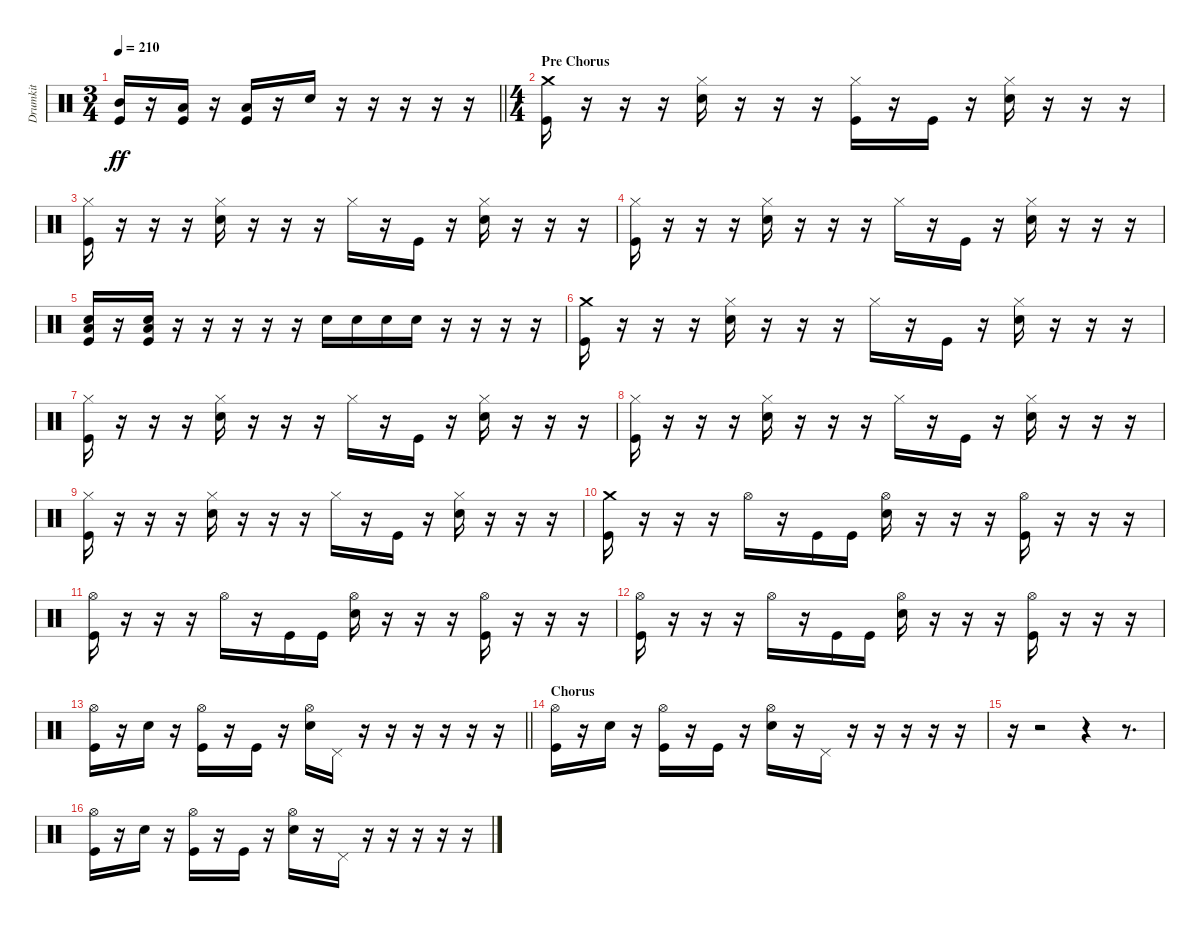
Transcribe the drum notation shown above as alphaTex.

\track ("Drumkit" "Drumkit") {instrument percussion}
\staff {score}
\articulation defaults
\ts (3 4)
\tempo 210
\clef neutral
\barLineRight lightlight
\ks c
("Mid Tom (hit)" "Kick (hit)").16{dy ff} r.16 ("Low Tom (hit)" "Kick (hit)").16 r.16 ("Low Floor Tom (hit)" "Kick (hit)").16 r.16 "Snare (hit) 2".16 r.16 r.16 r.16 r.16 r.16 |
\ts (4 4)
\section ("" "Pre Chorus")
("Crash medium (hit)" "Kick (hit)").16 r.16 r.16 r.16 ("Hi-Hat (closed)" "Snare (hit) 2").16 r.16 r.16 r.16 ("Hi-Hat (closed)" "Kick (hit)").16 r.16 "Kick (hit)".16 r.16 ("Hi-Hat (closed)" "Snare (hit) 2").16 r.16 r.16 r.16 |
("Hi-Hat (closed)" "Kick (hit)").16 r.16 r.16 r.16 ("Hi-Hat (closed)" "Snare (hit) 2").16 r.16 r.16 r.16 "Hi-Hat (closed)".16 r.16 "Kick (hit)".16 r.16 ("Hi-Hat (closed)" "Snare (hit) 2").16 r.16 r.16 r.16 |
("Hi-Hat (closed)" "Kick (hit)").16 r.16 r.16 r.16 ("Hi-Hat (closed)" "Snare (hit) 2").16 r.16 r.16 r.16 "Hi-Hat (closed)".16 r.16 "Kick (hit)".16 r.16 ("Hi-Hat (closed)" "Snare (hit) 2").16 r.16 r.16 r.16 |
("Low Floor Tom (hit)" "Snare (hit) 2" "Kick (hit)").16 r.16 ("Low Floor Tom (hit)" "Snare (hit) 2" "Kick (hit)").16 r.16 r.16 r.16 r.16 r.16 "Snare (hit) 2".16 "Snare (hit) 2".16 "Snare (hit) 2".16 "Snare (hit) 2".16 r.16 r.16 r.16 r.16 |
("Crash medium (hit)" "Kick (hit)").16 r.16 r.16 r.16 ("Hi-Hat (closed)" "Snare (hit) 2").16 r.16 r.16 r.16 "Hi-Hat (closed)".16 r.16 "Kick (hit)".16 r.16 ("Hi-Hat (closed)" "Snare (hit) 2").16 r.16 r.16 r.16 |
("Hi-Hat (closed)" "Kick (hit)").16 r.16 r.16 r.16 ("Hi-Hat (closed)" "Snare (hit) 2").16 r.16 r.16 r.16 "Hi-Hat (closed)".16 r.16 "Kick (hit)".16 r.16 ("Hi-Hat (closed)" "Snare (hit) 2").16 r.16 r.16 r.16 |
("Hi-Hat (closed)" "Kick (hit)").16 r.16 r.16 r.16 ("Hi-Hat (closed)" "Snare (hit) 2").16 r.16 r.16 r.16 "Hi-Hat (closed)".16 r.16 "Kick (hit)".16 r.16 ("Hi-Hat (closed)" "Snare (hit) 2").16 r.16 r.16 r.16 |
("Hi-Hat (closed)" "Kick (hit)").16 r.16 r.16 r.16 ("Hi-Hat (closed)" "Snare (hit) 2").16 r.16 r.16 r.16 "Hi-Hat (closed)".16 r.16 "Kick (hit)".16 r.16 ("Hi-Hat (closed)" "Snare (hit) 2").16 r.16 r.16 r.16 |
("Crash medium (hit)" "Kick (hit)").16 r.16 r.16 r.16 "Hi-Hat (open)".16 r.16 "Kick (hit)".16 "Kick (hit)".16 ("Hi-Hat (open)" "Snare (hit) 2").16 r.16 r.16 r.16 ("Hi-Hat (open)" "Kick (hit)").16 r.16 r.16 r.16 |
("Hi-Hat (open)" "Kick (hit)").16 r.16 r.16 r.16 "Hi-Hat (open)".16 r.16 "Kick (hit)".16 "Kick (hit)".16 ("Hi-Hat (open)" "Snare (hit) 2").16 r.16 r.16 r.16 ("Hi-Hat (open)" "Kick (hit)").16 r.16 r.16 r.16 |
("Hi-Hat (open)" "Kick (hit)").16 r.16 r.16 r.16 "Hi-Hat (open)".16 r.16 "Kick (hit)".16 "Kick (hit)".16 ("Hi-Hat (open)" "Snare (hit) 2").16 r.16 r.16 r.16 ("Hi-Hat (open)" "Kick (hit)").16 r.16 r.16 r.16 |
\barLineRight lightlight
("Hi-Hat (open)" "Kick (hit)").16 r.16 "Snare (hit) 2".16 r.16 ("Hi-Hat (open)" "Kick (hit)").16 r.16 "Kick (hit)".16 r.16 ("Hi-Hat (open)" "Snare (hit) 2").16 "Pedal Hi-Hat (hit)".16 r.16 r.16 r.16 r.16 r.16 r.16 |
\section ("" "Chorus")
("Hi-Hat (open)" "Kick (hit)").16 r.16 "Snare (hit) 2".16 r.16 ("Hi-Hat (open)" "Kick (hit)").16 r.16 "Kick (hit)".16 r.16 ("Hi-Hat (open)" "Snare (hit) 2").16 r.16 "Pedal Hi-Hat (hit)".16 r.16 r.16 r.16 r.16 r.16 |
r.16 r.2 r.4 r.8{d} |
("Hi-Hat (open)" "Kick (hit)").16 r.16 "Snare (hit) 2".16 r.16 ("Hi-Hat (open)" "Kick (hit)").16 r.16 "Kick (hit)".16 r.16 ("Hi-Hat (open)" "Snare (hit) 2").16 r.16 "Pedal Hi-Hat (hit)".16 r.16 r.16 r.16 r.16 r.16
